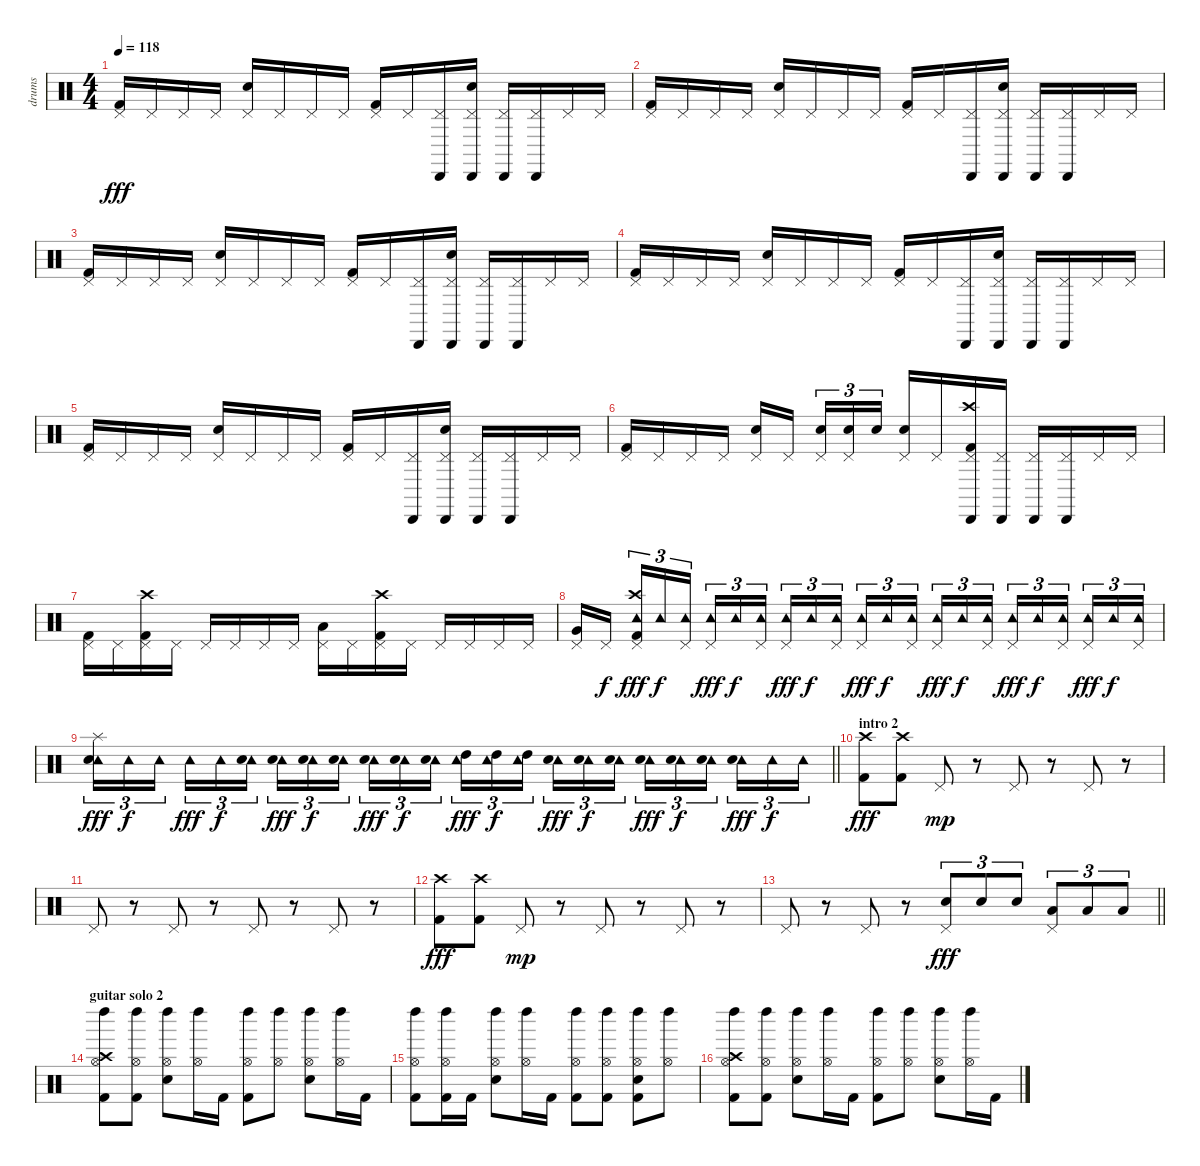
\track ("drums" "drums") {instrument percussion}
\staff {score}
\articulation defaults
\ts (4 4)
\tempo 118
\clef neutral
\ks c
("Pedal Hi-Hat (hit)" "Kick (hit) 2").16{dy fff} "Pedal Hi-Hat (hit)".16 "Pedal Hi-Hat (hit)".16 "Pedal Hi-Hat (hit)".16 ("Pedal Hi-Hat (hit)" "Electric Snare (hit)").16 "Pedal Hi-Hat (hit)".16 "Pedal Hi-Hat (hit)".16 "Pedal Hi-Hat (hit)".16 ("Pedal Hi-Hat (hit)" "Kick (hit) 2").16 "Pedal Hi-Hat (hit)".16 ("Pedal Hi-Hat (hit)" "Cabasa (hit)").16 ("Pedal Hi-Hat (hit)" "Electric Snare (hit)" "Cabasa (hit)").16 ("Cabasa (hit)" "Pedal Hi-Hat (hit)").16 ("Cabasa (hit)" "Pedal Hi-Hat (hit)").16 "Pedal Hi-Hat (hit)".16 "Pedal Hi-Hat (hit)".16 |
("Pedal Hi-Hat (hit)" "Kick (hit) 2").16 "Pedal Hi-Hat (hit)".16 "Pedal Hi-Hat (hit)".16 "Pedal Hi-Hat (hit)".16 ("Pedal Hi-Hat (hit)" "Electric Snare (hit)").16 "Pedal Hi-Hat (hit)".16 "Pedal Hi-Hat (hit)".16 "Pedal Hi-Hat (hit)".16 ("Pedal Hi-Hat (hit)" "Kick (hit) 2").16 "Pedal Hi-Hat (hit)".16 ("Pedal Hi-Hat (hit)" "Cabasa (hit)").16 ("Pedal Hi-Hat (hit)" "Electric Snare (hit)" "Cabasa (hit)").16 ("Cabasa (hit)" "Pedal Hi-Hat (hit)").16 ("Cabasa (hit)" "Pedal Hi-Hat (hit)").16 "Pedal Hi-Hat (hit)".16 "Pedal Hi-Hat (hit)".16 |
("Pedal Hi-Hat (hit)" "Kick (hit) 2").16 "Pedal Hi-Hat (hit)".16 "Pedal Hi-Hat (hit)".16 "Pedal Hi-Hat (hit)".16 ("Pedal Hi-Hat (hit)" "Electric Snare (hit)").16 "Pedal Hi-Hat (hit)".16 "Pedal Hi-Hat (hit)".16 "Pedal Hi-Hat (hit)".16 ("Pedal Hi-Hat (hit)" "Kick (hit) 2").16 "Pedal Hi-Hat (hit)".16 ("Pedal Hi-Hat (hit)" "Cabasa (hit)").16 ("Pedal Hi-Hat (hit)" "Electric Snare (hit)" "Cabasa (hit)").16 ("Cabasa (hit)" "Pedal Hi-Hat (hit)").16 ("Cabasa (hit)" "Pedal Hi-Hat (hit)").16 "Pedal Hi-Hat (hit)".16 "Pedal Hi-Hat (hit)".16 |
("Pedal Hi-Hat (hit)" "Kick (hit) 2").16 "Pedal Hi-Hat (hit)".16 "Pedal Hi-Hat (hit)".16 "Pedal Hi-Hat (hit)".16 ("Pedal Hi-Hat (hit)" "Electric Snare (hit)").16 "Pedal Hi-Hat (hit)".16 "Pedal Hi-Hat (hit)".16 "Pedal Hi-Hat (hit)".16 ("Pedal Hi-Hat (hit)" "Kick (hit) 2").16 "Pedal Hi-Hat (hit)".16 ("Pedal Hi-Hat (hit)" "Cabasa (hit)").16 ("Pedal Hi-Hat (hit)" "Electric Snare (hit)" "Cabasa (hit)").16 ("Cabasa (hit)" "Pedal Hi-Hat (hit)").16 ("Cabasa (hit)" "Pedal Hi-Hat (hit)").16 "Pedal Hi-Hat (hit)".16 "Pedal Hi-Hat (hit)".16 |
("Pedal Hi-Hat (hit)" "Kick (hit) 2").16 "Pedal Hi-Hat (hit)".16 "Pedal Hi-Hat (hit)".16 "Pedal Hi-Hat (hit)".16 ("Pedal Hi-Hat (hit)" "Electric Snare (hit)").16 "Pedal Hi-Hat (hit)".16 "Pedal Hi-Hat (hit)".16 "Pedal Hi-Hat (hit)".16 ("Pedal Hi-Hat (hit)" "Kick (hit) 2").16 "Pedal Hi-Hat (hit)".16 ("Pedal Hi-Hat (hit)" "Cabasa (hit)").16 ("Pedal Hi-Hat (hit)" "Electric Snare (hit)" "Cabasa (hit)").16 ("Cabasa (hit)" "Pedal Hi-Hat (hit)").16 ("Cabasa (hit)" "Pedal Hi-Hat (hit)").16 "Pedal Hi-Hat (hit)".16 "Pedal Hi-Hat (hit)".16 |
("Pedal Hi-Hat (hit)" "Kick (hit) 2").16 "Pedal Hi-Hat (hit)".16 "Pedal Hi-Hat (hit)".16 "Pedal Hi-Hat (hit)".16 ("Pedal Hi-Hat (hit)" "Electric Snare (hit)").16 "Pedal Hi-Hat (hit)".16 ("Electric Snare (hit)" "Pedal Hi-Hat (hit)").16{tu (3 2)} ("Electric Snare (hit)" "Pedal Hi-Hat (hit)").16{tu (3 2)} "Electric Snare (hit)".16{tu (3 2)} ("Pedal Hi-Hat (hit)" "Electric Snare (hit)").16 "Pedal Hi-Hat (hit)".16 ("Kick (hit) 2" "Pedal Hi-Hat (hit)" "Cabasa (hit)" "Crash high (hit)").16 ("Pedal Hi-Hat (hit)" "Cabasa (hit)").16 ("Cabasa (hit)" "Pedal Hi-Hat (hit)").16 ("Cabasa (hit)" "Pedal Hi-Hat (hit)").16 "Pedal Hi-Hat (hit)".16 "Pedal Hi-Hat (hit)".16 |
("Pedal Hi-Hat (hit)" "Kick (hit) 2").16 "Pedal Hi-Hat (hit)".16 ("Pedal Hi-Hat (hit)" "Kick (hit) 2" "Crash high (hit)").16 "Pedal Hi-Hat (hit)".16 "Pedal Hi-Hat (hit)".16 "Pedal Hi-Hat (hit)".16 "Pedal Hi-Hat (hit)".16 "Pedal Hi-Hat (hit)".16 ("Low Tom (hit)" "Pedal Hi-Hat (hit)").16 "Pedal Hi-Hat (hit)".16 ("Pedal Hi-Hat (hit)" "Kick (hit) 2" "Crash high (hit)").16 "Pedal Hi-Hat (hit)".16 "Pedal Hi-Hat (hit)".16 "Pedal Hi-Hat (hit)".16 "Pedal Hi-Hat (hit)".16 "Pedal Hi-Hat (hit)".16 |
("Very Low Tom (hit)" "Pedal Hi-Hat (hit)").16 "Pedal Hi-Hat (hit)".16{dy f} ("Tambourine (hit)" "Crash high (hit)" "Kick (hit) 2" "Pedal Hi-Hat (hit)").16{tu (3 2) dy fff} "Tambourine (hit)".16{tu (3 2) dy f} ("Tambourine (hit)" "Pedal Hi-Hat (hit)").16{tu (3 2)} ("Tambourine (hit)" "Pedal Hi-Hat (hit)").16{tu (3 2) dy fff} "Tambourine (hit)".16{tu (3 2) dy f} ("Tambourine (hit)" "Pedal Hi-Hat (hit)").16{tu (3 2)} ("Tambourine (hit)" "Pedal Hi-Hat (hit)").16{tu (3 2) dy fff} "Tambourine (hit)".16{tu (3 2) dy f} ("Tambourine (hit)" "Pedal Hi-Hat (hit)").16{tu (3 2)} ("Tambourine (hit)" "Pedal Hi-Hat (hit)").16{tu (3 2) dy fff} "Tambourine (hit)".16{tu (3 2) dy f} ("Tambourine (hit)" "Pedal Hi-Hat (hit)").16{tu (3 2)} ("Tambourine (hit)" "Pedal Hi-Hat (hit)").16{tu (3 2) dy fff} "Tambourine (hit)".16{tu (3 2) dy f} ("Tambourine (hit)" "Pedal Hi-Hat (hit)").16{tu (3 2)} ("Tambourine (hit)" "Pedal Hi-Hat (hit)").16{tu (3 2) dy fff} "Tambourine (hit)".16{tu (3 2) dy f} ("Tambourine (hit)" "Pedal Hi-Hat (hit)").16{tu (3 2)} ("Tambourine (hit)" "Pedal Hi-Hat (hit)").16{tu (3 2) dy fff} "Tambourine (hit)".16{tu (3 2) dy f} ("Tambourine (hit)" "Pedal Hi-Hat (hit)").16{tu (3 2)} |
\barLineRight lightlight
("Tambourine (hit)" "Electric Snare (hit)" "Splash (hit)").16{tu (3 2) dy fff} "Tambourine (hit)".16{tu (3 2) dy f} "Tambourine (hit)".16{tu (3 2)} "Tambourine (hit)".16{tu (3 2) dy fff} "Tambourine (hit)".16{tu (3 2) dy f} ("Tambourine (hit)" "Electric Snare (hit)").16{tu (3 2)} ("Tambourine (hit)" "Electric Snare (hit)").16{tu (3 2) dy fff} ("Tambourine (hit)" "Electric Snare (hit)").16{tu (3 2) dy f} ("Tambourine (hit)" "Electric Snare (hit)").16{tu (3 2)} ("Tambourine (hit)" "Electric Snare (hit)").16{tu (3 2) dy fff} ("Tambourine (hit)" "Electric Snare (hit)").16{tu (3 2) dy f} ("Tambourine (hit)" "Electric Snare (hit)").16{tu (3 2)} ("Tambourine (hit)" "High Tom (hit)").16{tu (3 2) dy fff} ("Tambourine (hit)" "High Tom (hit)").16{tu (3 2) dy f} ("Tambourine (hit)" "High Tom (hit)").16{tu (3 2)} ("Tambourine (hit)" "Electric Snare (hit)").16{tu (3 2) dy fff} ("Tambourine (hit)" "Electric Snare (hit)").16{tu (3 2) dy f} ("Tambourine (hit)" "Electric Snare (hit)").16{tu (3 2)} ("Tambourine (hit)" "Electric Snare (hit)").16{tu (3 2) dy fff} ("Tambourine (hit)" "Electric Snare (hit)").16{tu (3 2) dy f} ("Tambourine (hit)" "Electric Snare (hit)").16{tu (3 2)} ("Tambourine (hit)" "Electric Snare (hit)").16{tu (3 2) dy fff} "Tambourine (hit)".16{tu (3 2) dy f} "Tambourine (hit)".16{tu (3 2)} |
\section ("" "intro 2")
("Crash high (hit)" "Kick (hit) 2").8{dy fff} ("Crash high (hit)" "Kick (hit) 2").8 "Pedal Hi-Hat (hit)".8{dy mp} r.8 "Pedal Hi-Hat (hit)".8 r.8 "Pedal Hi-Hat (hit)".8 r.8 |
"Pedal Hi-Hat (hit)".8 r.8 "Pedal Hi-Hat (hit)".8 r.8 "Pedal Hi-Hat (hit)".8 r.8 "Pedal Hi-Hat (hit)".8 r.8 |
("Crash high (hit)" "Kick (hit) 2").8{dy fff} ("Crash high (hit)" "Kick (hit) 2").8 "Pedal Hi-Hat (hit)".8{dy mp} r.8 "Pedal Hi-Hat (hit)".8 r.8 "Pedal Hi-Hat (hit)".8 r.8 |
\barLineRight lightlight "Pedal Hi-Hat (hit)".8
r.8 "Pedal Hi-Hat (hit)".8 r.8 ("Pedal Hi-Hat (hit)" "Electric Snare (hit)").8{tu (3 2) dy fff} "Electric Snare (hit)".8{tu (3 2)} "Electric Snare (hit)".8{tu (3 2)} ("Low Tom (hit)" "Pedal Hi-Hat (hit)").8{tu (3 2)} "Low Tom (hit)".8{tu (3 2)} "Low Tom (hit)".8{tu (3 2)} |
\section ("" "guitar solo 2")
("Hi-Hat (open)" "Crash high (hit)" "Left Maraca (hit)" "Kick (hit) 2").8 ("Kick (hit) 2" "Left Maraca (hit)" "Hi-Hat (open)").8 ("Hi-Hat (open)" "Electric Snare (hit)" "Left Maraca (hit)").8 ("Left Maraca (hit)" "Hi-Hat (open)").16 "Kick (hit) 2".16 ("Left Maraca (hit)" "Kick (hit) 2" "Hi-Hat (open)").8 ("Left Maraca (hit)" "Hi-Hat (open)").8 ("Hi-Hat (open)" "Electric Snare (hit)" "Left Maraca (hit)").8 ("Left Maraca (hit)" "Hi-Hat (open)").16 "Kick (hit) 2".16 |
("Hi-Hat (open)" "Left Maraca (hit)" "Kick (hit) 2").8 ("Hi-Hat (open)" "Left Maraca (hit)" "Kick (hit) 2").16 "Kick (hit) 2".16 ("Hi-Hat (open)" "Left Maraca (hit)" "Electric Snare (hit)").8 ("Left Maraca (hit)" "Hi-Hat (open)").16 "Kick (hit) 2".16 ("Kick (hit) 2" "Left Maraca (hit)" "Hi-Hat (open)").8 ("Hi-Hat (open)" "Kick (hit) 2" "Left Maraca (hit)").8 ("Electric Snare (hit)" "Left Maraca (hit)" "Kick (hit) 2" "Hi-Hat (open)").8 ("Left Maraca (hit)" "Hi-Hat (open)").8 |
("Hi-Hat (open)" "Crash high (hit)" "Left Maraca (hit)" "Kick (hit) 2").8 ("Kick (hit) 2" "Left Maraca (hit)" "Hi-Hat (open)").8 ("Hi-Hat (open)" "Electric Snare (hit)" "Left Maraca (hit)").8 ("Left Maraca (hit)" "Hi-Hat (open)").16 "Kick (hit) 2".16 ("Left Maraca (hit)" "Kick (hit) 2" "Hi-Hat (open)").8 ("Left Maraca (hit)" "Hi-Hat (open)").8 ("Hi-Hat (open)" "Electric Snare (hit)" "Left Maraca (hit)").8 ("Left Maraca (hit)" "Hi-Hat (open)").16 "Kick (hit) 2".16
